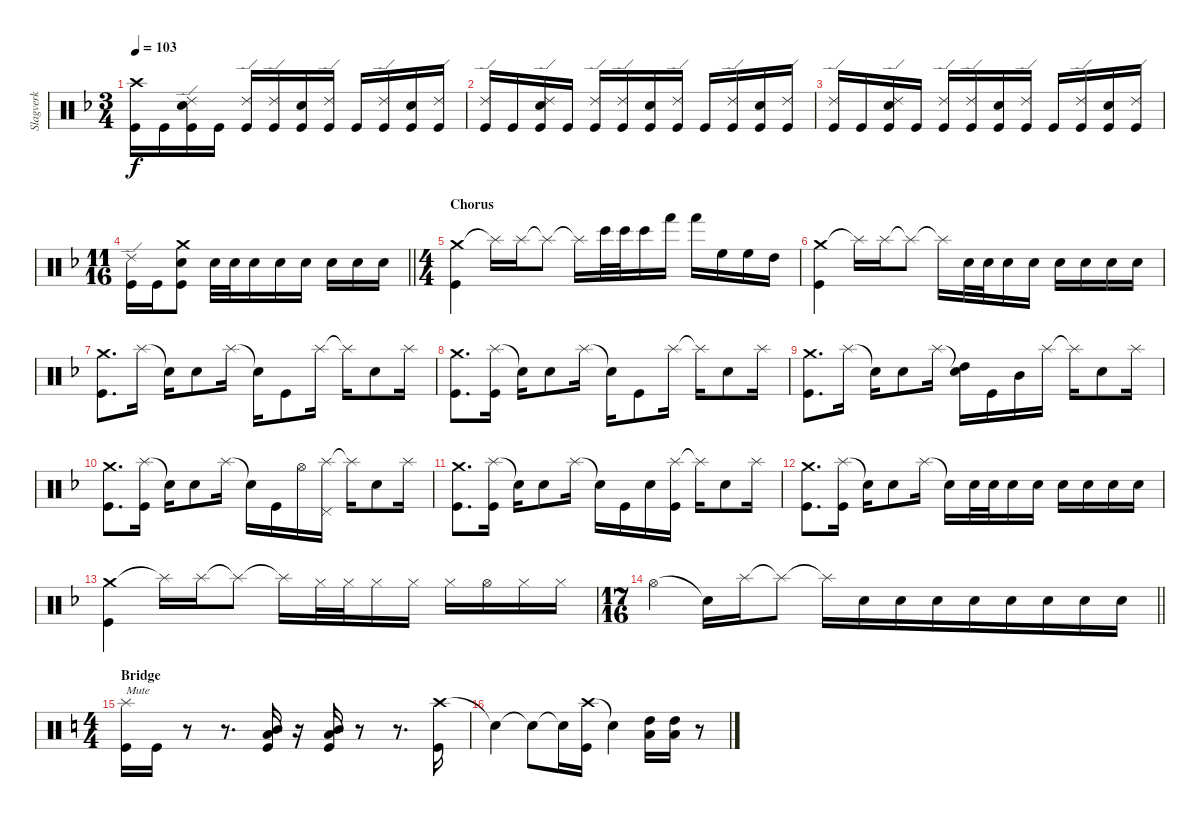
\track ("Slagverk" "Slagverk") {instrument percussion}
\staff {score}
\articulation defaults
\ts (3 4)
\tempo 103
\clef neutral
\ks f
("Crash high (hit)" "Kick (hit)").16{dy f} "Kick (hit)".16 ("Ride (edge) 2" "Electric Snare (hit)" "Kick (hit)").16 "Kick (hit)".16 ("Ride (edge) 2" "Kick (hit)").16 ("Ride (edge) 2" "Kick (hit)").16 ("Electric Snare (hit)" "Kick (hit)").16 ("Ride (edge) 2" "Kick (hit)").16 "Kick (hit)".16 ("Ride (edge) 2" "Kick (hit)").16 ("Electric Snare (hit)" "Kick (hit)").16 ("Ride (edge) 2" "Kick (hit)").16 |
("Ride (edge) 2" "Kick (hit)").16 "Kick (hit)".16 ("Ride (edge) 2" "Electric Snare (hit)" "Kick (hit)").16 "Kick (hit)".16 ("Ride (edge) 2" "Kick (hit)").16 ("Ride (edge) 2" "Kick (hit)").16 ("Electric Snare (hit)" "Kick (hit)").16 ("Ride (edge) 2" "Kick (hit)").16 "Kick (hit)".16 ("Ride (edge) 2" "Kick (hit)").16 ("Electric Snare (hit)" "Kick (hit)").16 ("Ride (edge) 2" "Kick (hit)").16 |
("Ride (edge) 2" "Kick (hit)").16 "Kick (hit)".16 ("Ride (edge) 2" "Electric Snare (hit)" "Kick (hit)").16 "Kick (hit)".16 ("Ride (edge) 2" "Kick (hit)").16 ("Ride (edge) 2" "Kick (hit)").16 ("Electric Snare (hit)" "Kick (hit)").16 ("Ride (edge) 2" "Kick (hit)").16 "Kick (hit)".16 ("Ride (edge) 2" "Kick (hit)").16 ("Electric Snare (hit)" "Kick (hit)").16 ("Ride (edge) 2" "Kick (hit)").16 |
\ts (11 16)
\barLineRight lightlight
("Ride (edge) 2" "Kick (hit)").16{beam merge} "Kick (hit)".16{beam merge} ("Crash medium (hit)" "Electric Snare (hit)" "Kick (hit)").8{beam split} "Electric Snare (hit)".32 "Electric Snare (hit)".32{beam merge} "Electric Snare (hit)".16{beam merge} "Electric Snare (hit)".16{beam merge} "Electric Snare (hit)".16 "Electric Snare (hit)".16{beam merge} "Electric Snare (hit)".16{beam merge} "Electric Snare (hit)".16 |
\ts (4 4)
\section ("" "Chorus")
("Crash medium (hit)" "Kick (hit)").4 "Splash (hit)"{t}.16 "Splash (hit)".16 "Splash (hit)"{t}.8 "Splash (hit)"{t}.16 "Bongo High (hit)".32 "Bongo High (hit)".32 "Bongo High (hit)".16 "Hand (hit)".16 "Hand (hit)".16 "High Floor Tom (hit)".16 "High Floor Tom (hit)".16 "High Tom (hit)".16 |
("Crash medium (hit)" "Kick (hit)").4 "Splash (hit)"{t}.16 "Splash (hit)".16 "Splash (hit)"{t}.8 "Splash (hit)"{t}.16{beam merge} "Electric Snare (hit)".32 "Electric Snare (hit)".32{beam merge} "Electric Snare (hit)".16{beam merge} "Electric Snare (hit)".16{beam split} "Electric Snare (hit)".16 "Electric Snare (hit)".16{beam merge} "Electric Snare (hit)".16{beam merge} "Electric Snare (hit)".16 |
("Crash medium (hit)" "Kick (hit)").8{d} "Splash (hit)".16 "Snare (hit)"{t}.16 "Electric Snare (hit)".8 "Splash (hit)".16 "Snare (hit)"{t}.16 "Kick (hit)".8 "Splash (hit)".16 "Splash (hit)"{t}.16 "Electric Snare (hit)".8 "Splash (hit)".16 |
("Crash medium (hit)" "Kick (hit)").8{d} ("Splash (hit)" "Kick (hit)").16 "Snare (hit)"{t}.16 "Electric Snare (hit)".8 "Splash (hit)".16 "Snare (hit)"{t}.16 "Kick (hit)".8 "Splash (hit)".16 "Splash (hit)"{t}.16 "Electric Snare (hit)".8 "Splash (hit)".16 |
("Crash medium (hit)" "Kick (hit)").8{d} "Splash (hit)".16 "Snare (hit)"{t}.16 "Electric Snare (hit)".8 "Splash (hit)".16 ("Snare (hit)"{t} "High Tom (hit)").16 "Kick (hit)".16 "Mid Tom (hit)".16 "Splash (hit)".16 "Splash (hit)"{t}.16 "Electric Snare (hit)".8 "Splash (hit)".16 |
("Crash medium (hit)" "Kick (hit)").8{d} ("Splash (hit)" "Kick (hit)").16 "Snare (hit)"{t}.16 "Electric Snare (hit)".8 "Splash (hit)".16 "Snare (hit)"{t}.16 "Kick (hit)".16 "Hi-Hat (open)".16 ("Splash (hit)" "Pedal Hi-Hat (hit)").16 "Splash (hit)"{t}.16 "Electric Snare (hit)".8 "Splash (hit)".16 |
("Crash medium (hit)" "Kick (hit)").8{d} ("Splash (hit)" "Kick (hit)").16 "Snare (hit)"{t}.16 "Electric Snare (hit)".8 "Splash (hit)".16 "Snare (hit)"{t}.16 "Kick (hit)".16 "Electric Snare (hit)".16 ("Splash (hit)" "Kick (hit)").16 "Splash (hit)"{t}.16 "Electric Snare (hit)".8 "Splash (hit)".16 |
("Crash medium (hit)" "Kick (hit)").8{d} ("Splash (hit)" "Kick (hit)").16 "Snare (hit)"{t}.16 "Electric Snare (hit)".8 "Splash (hit)".16 "Snare (hit)"{t}.16{beam merge} "Electric Snare (hit)".32 "Electric Snare (hit)".32{beam merge} "Electric Snare (hit)".16{beam merge} "Electric Snare (hit)".16{beam split} "Electric Snare (hit)".16 "Electric Snare (hit)".16{beam merge} "Electric Snare (hit)".16{beam merge} "Electric Snare (hit)".16 |
("Crash medium (hit)" "Kick (hit)").4 "Splash (hit)"{t}.16 "Splash (hit)".16 "Splash (hit)"{t}.8 "Splash (hit)"{t}.16 "Hi-Hat (closed)".32 "Hi-Hat (closed)".32 "Hi-Hat (closed)".16 "Hi-Hat (closed)".16 "Hi-Hat (closed)".16 "Hi-Hat (open)".16 "Hi-Hat (closed)".16 "Hi-Hat (closed)".16 |
\ts (17 16)
\barLineRight lightlight "Hi-Hat (open)".4 "Snare (hit)"{t}.16{beam merge} "Splash (hit)".16{beam merge} "Splash (hit)"{t}.8 "Splash (hit)"{t}.16{beam merge} "Electric Snare (hit)".16{beam merge} "Electric Snare (hit)".16{beam merge} "Electric Snare (hit)".16{beam merge} "Electric Snare (hit)".16 "Electric Snare (hit)".16{beam merge} "Electric Snare (hit)".16{beam merge} "Electric Snare (hit)".16{beam merge} "Electric Snare (hit)".16
|
\ts (4 4)
\section ("" "Bridge")
\ks c
("Splash (hit)" "Kick (hit)").16{txt "Mute"} "Kick (hit)".16 r.8 r.8{d} ("Low Tom (hit)" "Mid Tom (hit)" "Kick (hit)").16 r.16 ("Low Tom (hit)" "Mid Tom (hit)" "Kick (hit)").16 r.8 r.8{d} ("Crash high (hit)" "Kick (hit)").16 |
"Snare (hit)"{t}.4 "Snare (hit)"{t}.8 "Snare (hit)"{t}.16 ("Crash high (hit)" "Kick (hit)").16 "Snare (hit)"{t}.4 ("High Tom (hit)" "Low Tom (hit)").16 ("High Tom (hit)" "Low Tom (hit)").16 r.8
